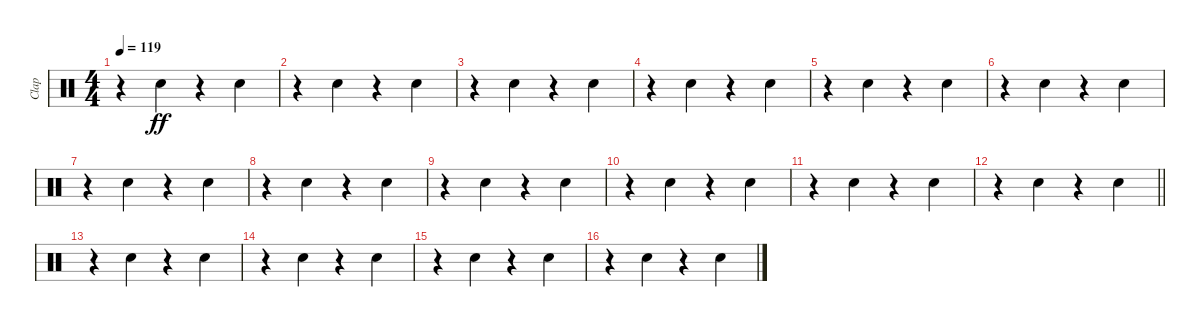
\track ("Clap" "Clap") {instrument percussion}
\staff {score}
\articulation defaults
\ts (4 4)
\tempo 119
\clef neutral
\ks c
r.4{dy ff} "Hand Clap (hit)".4 r.4 "Hand Clap (hit)".4 |
r.4 "Hand Clap (hit)".4 r.4 "Hand Clap (hit)".4 |
r.4 "Hand Clap (hit)".4 r.4 "Hand Clap (hit)".4 |
r.4 "Hand Clap (hit)".4 r.4 "Hand Clap (hit)".4 |
r.4 "Hand Clap (hit)".4 r.4 "Hand Clap (hit)".4 |
r.4 "Hand Clap (hit)".4 r.4 "Hand Clap (hit)".4 |
r.4 "Hand Clap (hit)".4 r.4 "Hand Clap (hit)".4 |
r.4 "Hand Clap (hit)".4 r.4 "Hand Clap (hit)".4 |
r.4 "Hand Clap (hit)".4 r.4 "Hand Clap (hit)".4 |
r.4 "Hand Clap (hit)".4 r.4 "Hand Clap (hit)".4 |
r.4 "Hand Clap (hit)".4 r.4 "Hand Clap (hit)".4 |
\barLineRight lightlight
r.4 "Hand Clap (hit)".4 r.4 "Hand Clap (hit)".4 |
r.4 "Hand Clap (hit)".4 r.4 "Hand Clap (hit)".4 |
r.4 "Hand Clap (hit)".4 r.4 "Hand Clap (hit)".4 |
r.4 "Hand Clap (hit)".4 r.4 "Hand Clap (hit)".4 |
r.4 "Hand Clap (hit)".4 r.4 "Hand Clap (hit)".4
